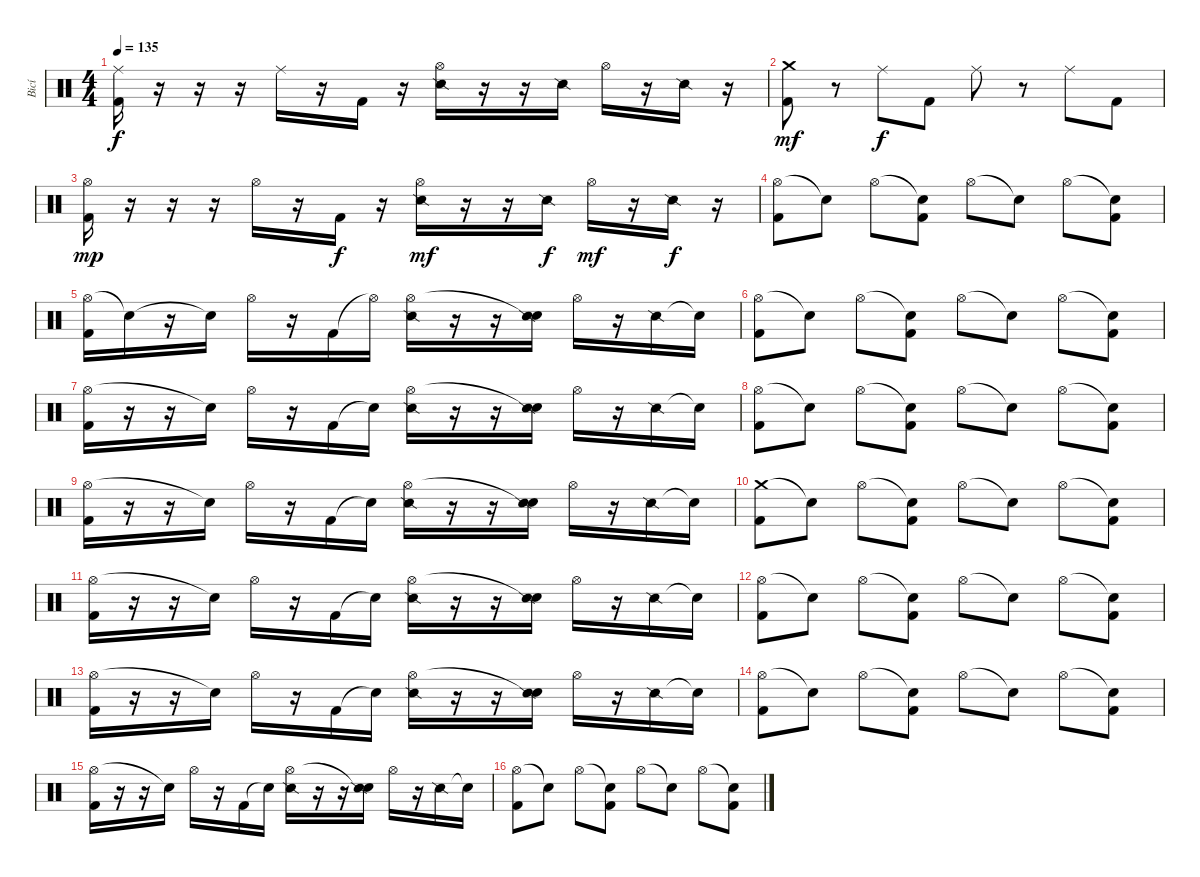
\track ("Bicí" "Bicí") {instrument percussion}
\staff {score}
\articulation defaults
\ts (4 4)
\tempo 135
\clef neutral
\ks c
("Ride (middle)" "Kick (hit) 2").16{dy f} r.16 r.16 r.16 "Ride (middle)".16 r.16 "Kick (hit) 2".16 r.16 ("Hi-Hat (open)" "Snare (side stick) 2").16 r.16 r.16 "Snare (side stick) 2".16 "Hi-Hat (open)".16 r.16 "Snare (side stick) 2".16 r.16 |
("Crash medium (hit)" "Kick (hit) 2").8{dy mf} r.8 "Ride (middle)".8{dy f} "Kick (hit) 2".8 "Ride (middle)".8 r.8 "Ride (middle)".8 "Kick (hit) 2".8 |
("Hi-Hat (open)" "Kick (hit) 2").16{dy mp} r.16 r.16 r.16 "Hi-Hat (open)".16 r.16 "Kick (hit) 2".16{dy f} r.16 ("Hi-Hat (open)" "Snare (side stick) 2").16{dy mf} r.16 r.16 "Snare (side stick) 2".16{dy f} "Hi-Hat (open)".16{dy mf} r.16 "Snare (side stick) 2".16{dy f} r.16 |
("Hi-Hat (open)" "Kick (hit) 2").8 "Snare (hit)"{t}.8 "Hi-Hat (open)".8 ("Snare (hit)"{t} "Kick (hit) 2").8 "Hi-Hat (open)".8 "Snare (hit)"{t}.8 "Hi-Hat (open)".8 ("Snare (hit)"{t} "Kick (hit) 2").8 |
("Hi-Hat (open)" "Kick (hit) 2").16 "Snare (hit)"{t}.16 r.16 "Snare (hit)"{t}.16 "Hi-Hat (open)".16 r.16 "Kick (hit) 2".16 "Hi-Hat (open)"{t}.16 ("Hi-Hat (open)" "Snare (side stick) 2").16 r.16 r.16 ("Snare (hit)"{t} "Snare (side stick) 2").16 "Hi-Hat (open)".16 r.16 "Snare (side stick) 2".16 "Snare (hit)"{t}.16 |
("Hi-Hat (open)" "Kick (hit) 2").8 "Snare (hit)"{t}.8 "Hi-Hat (open)".8 ("Snare (hit)"{t} "Kick (hit) 2").8 "Hi-Hat (open)".8 "Snare (hit)"{t}.8 "Hi-Hat (open)".8 ("Snare (hit)"{t} "Kick (hit) 2").8 |
("Hi-Hat (open)" "Kick (hit) 2").16 r.16 r.16 "Snare (hit)"{t}.16 "Hi-Hat (open)".16 r.16 "Kick (hit) 2".16 "Snare (hit)"{t}.16 ("Hi-Hat (open)" "Snare (side stick) 2").16 r.16 r.16 ("Snare (hit)"{t} "Snare (side stick) 2").16 "Hi-Hat (open)".16 r.16 "Snare (side stick) 2".16 "Snare (hit)"{t}.16 |
("Hi-Hat (open)" "Kick (hit) 2").8 "Snare (hit)"{t}.8 "Hi-Hat (open)".8 ("Snare (hit)"{t} "Kick (hit) 2").8 "Hi-Hat (open)".8 "Snare (hit)"{t}.8 "Hi-Hat (open)".8 ("Snare (hit)"{t} "Kick (hit) 2").8 |
("Hi-Hat (open)" "Kick (hit) 2").16 r.16 r.16 "Snare (hit)"{t}.16 "Hi-Hat (open)".16 r.16 "Kick (hit) 2".16 "Snare (hit)"{t}.16 ("Hi-Hat (open)" "Snare (side stick) 2").16 r.16 r.16 ("Snare (hit)"{t} "Snare (side stick) 2").16 "Hi-Hat (open)".16 r.16 "Snare (side stick) 2".16 "Snare (hit)"{t}.16 |
("Crash medium (hit)" "Kick (hit) 2").8 "Snare (hit)"{t}.8 "Hi-Hat (open)".8 ("Snare (hit)"{t} "Kick (hit) 2").8 "Hi-Hat (open)".8 "Snare (hit)"{t}.8 "Hi-Hat (open)".8 ("Snare (hit)"{t} "Kick (hit) 2").8 |
("Hi-Hat (open)" "Kick (hit) 2").16 r.16 r.16 "Snare (hit)"{t}.16 "Hi-Hat (open)".16 r.16 "Kick (hit) 2".16 "Snare (hit)"{t}.16 ("Hi-Hat (open)" "Snare (side stick) 2").16 r.16 r.16 ("Snare (hit)"{t} "Snare (side stick) 2").16 "Hi-Hat (open)".16 r.16 "Snare (side stick) 2".16 "Snare (hit)"{t}.16 |
("Hi-Hat (open)" "Kick (hit) 2").8 "Snare (hit)"{t}.8 "Hi-Hat (open)".8 ("Snare (hit)"{t} "Kick (hit) 2").8 "Hi-Hat (open)".8 "Snare (hit)"{t}.8 "Hi-Hat (open)".8 ("Snare (hit)"{t} "Kick (hit) 2").8 |
("Hi-Hat (open)" "Kick (hit) 2").16 r.16 r.16 "Snare (hit)"{t}.16 "Hi-Hat (open)".16 r.16 "Kick (hit) 2".16 "Snare (hit)"{t}.16 ("Hi-Hat (open)" "Snare (side stick) 2").16 r.16 r.16 ("Snare (hit)"{t} "Snare (side stick) 2").16 "Hi-Hat (open)".16 r.16 "Snare (side stick) 2".16 "Snare (hit)"{t}.16 |
("Hi-Hat (open)" "Kick (hit) 2").8 "Snare (hit)"{t}.8 "Hi-Hat (open)".8 ("Snare (hit)"{t} "Kick (hit) 2").8 "Hi-Hat (open)".8 "Snare (hit)"{t}.8 "Hi-Hat (open)".8 ("Snare (hit)"{t} "Kick (hit) 2").8 |
("Hi-Hat (open)" "Kick (hit) 2").16 r.16 r.16 "Snare (hit)"{t}.16 "Hi-Hat (open)".16 r.16 "Kick (hit) 2".16 "Snare (hit)"{t}.16 ("Hi-Hat (open)" "Snare (side stick) 2").16 r.16 r.16 ("Snare (hit)"{t} "Snare (side stick) 2").16 "Hi-Hat (open)".16 r.16 "Snare (side stick) 2".16 "Snare (hit)"{t}.16 |
("Hi-Hat (open)" "Kick (hit) 2").8 "Snare (hit)"{t}.8 "Hi-Hat (open)".8 ("Snare (hit)"{t} "Kick (hit) 2").8 "Hi-Hat (open)".8 "Snare (hit)"{t}.8 "Hi-Hat (open)".8 ("Snare (hit)"{t} "Kick (hit) 2").8
